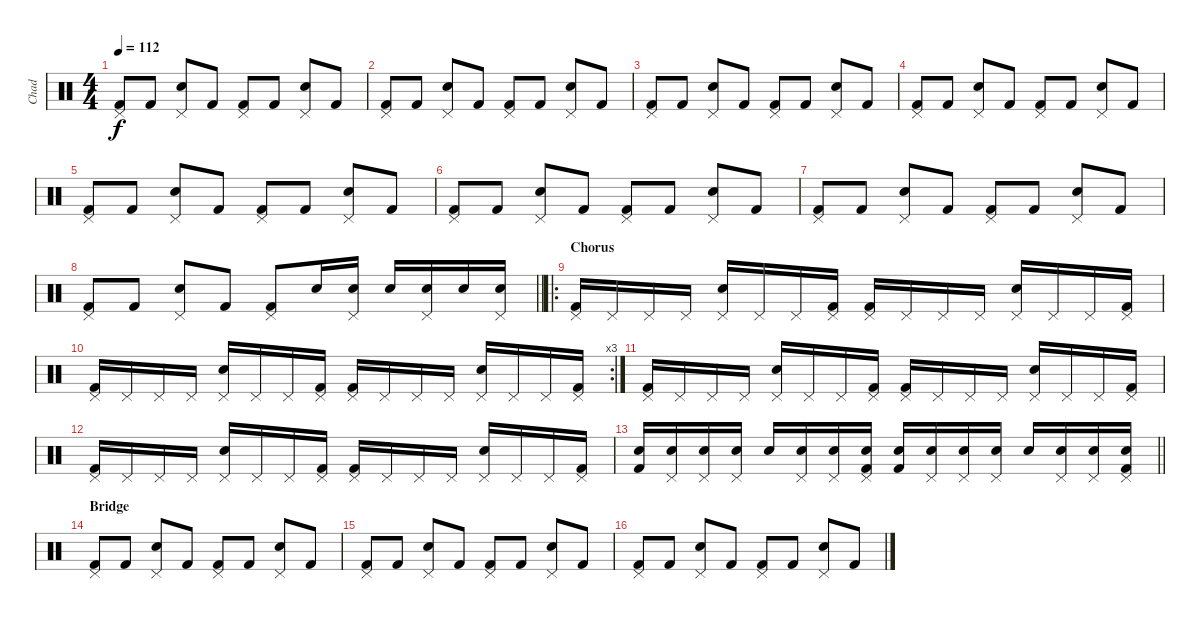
\track ("Chad" "Chad") {instrument percussion}
\staff {score}
\articulation defaults
\ts (4 4)
\tempo 112
\clef neutral
\ks c
("Kick (hit) 2" "Pedal Hi-Hat (hit)").8{dy f} "Kick (hit) 2".8 ("Snare (hit) 2" "Pedal Hi-Hat (hit)").8 "Kick (hit) 2".8 ("Kick (hit) 2" "Pedal Hi-Hat (hit)").8 "Kick (hit) 2".8 ("Snare (hit) 2" "Pedal Hi-Hat (hit)").8 "Kick (hit) 2".8 |
("Kick (hit) 2" "Pedal Hi-Hat (hit)").8 "Kick (hit) 2".8 ("Snare (hit) 2" "Pedal Hi-Hat (hit)").8 "Kick (hit) 2".8 ("Kick (hit) 2" "Pedal Hi-Hat (hit)").8 "Kick (hit) 2".8 ("Snare (hit) 2" "Pedal Hi-Hat (hit)").8 "Kick (hit) 2".8 |
("Kick (hit) 2" "Pedal Hi-Hat (hit)").8 "Kick (hit) 2".8 ("Snare (hit) 2" "Pedal Hi-Hat (hit)").8 "Kick (hit) 2".8 ("Kick (hit) 2" "Pedal Hi-Hat (hit)").8 "Kick (hit) 2".8 ("Snare (hit) 2" "Pedal Hi-Hat (hit)").8 "Kick (hit) 2".8 |
("Kick (hit) 2" "Pedal Hi-Hat (hit)").8 "Kick (hit) 2".8 ("Snare (hit) 2" "Pedal Hi-Hat (hit)").8 "Kick (hit) 2".8 ("Kick (hit) 2" "Pedal Hi-Hat (hit)").8 "Kick (hit) 2".8 ("Snare (hit) 2" "Pedal Hi-Hat (hit)").8 "Kick (hit) 2".8 |
("Kick (hit) 2" "Pedal Hi-Hat (hit)").8 "Kick (hit) 2".8 ("Snare (hit) 2" "Pedal Hi-Hat (hit)").8 "Kick (hit) 2".8 ("Kick (hit) 2" "Pedal Hi-Hat (hit)").8 "Kick (hit) 2".8 ("Snare (hit) 2" "Pedal Hi-Hat (hit)").8 "Kick (hit) 2".8 |
("Kick (hit) 2" "Pedal Hi-Hat (hit)").8 "Kick (hit) 2".8 ("Snare (hit) 2" "Pedal Hi-Hat (hit)").8 "Kick (hit) 2".8 ("Kick (hit) 2" "Pedal Hi-Hat (hit)").8 "Kick (hit) 2".8 ("Snare (hit) 2" "Pedal Hi-Hat (hit)").8 "Kick (hit) 2".8 |
("Kick (hit) 2" "Pedal Hi-Hat (hit)").8 "Kick (hit) 2".8 ("Snare (hit) 2" "Pedal Hi-Hat (hit)").8 "Kick (hit) 2".8 ("Kick (hit) 2" "Pedal Hi-Hat (hit)").8 "Kick (hit) 2".8 ("Snare (hit) 2" "Pedal Hi-Hat (hit)").8 "Kick (hit) 2".8 |
\barLineRight lightlight
("Kick (hit) 2" "Pedal Hi-Hat (hit)").8 "Kick (hit) 2".8 ("Snare (hit) 2" "Pedal Hi-Hat (hit)").8 "Kick (hit) 2".8 ("Kick (hit) 2" "Pedal Hi-Hat (hit)").8 "Snare (hit) 2".16 ("Snare (hit) 2" "Pedal Hi-Hat (hit)").16 "Snare (hit) 2".16 ("Snare (hit) 2" "Pedal Hi-Hat (hit)").16 "Snare (hit) 2".16 ("Snare (hit) 2" "Pedal Hi-Hat (hit)").16 |
\ro
\section ("" "Chorus")
("Kick (hit) 2" "Pedal Hi-Hat (hit)").16 "Pedal Hi-Hat (hit)".16 "Pedal Hi-Hat (hit)".16 "Pedal Hi-Hat (hit)".16 ("Snare (hit) 2" "Pedal Hi-Hat (hit)").16 "Pedal Hi-Hat (hit)".16 "Pedal Hi-Hat (hit)".16 ("Kick (hit) 2" "Pedal Hi-Hat (hit)").16 ("Kick (hit) 2" "Pedal Hi-Hat (hit)").16 "Pedal Hi-Hat (hit)".16 "Pedal Hi-Hat (hit)".16 "Pedal Hi-Hat (hit)".16 ("Snare (hit) 2" "Pedal Hi-Hat (hit)").16 "Pedal Hi-Hat (hit)".16 "Pedal Hi-Hat (hit)".16 ("Kick (hit) 2" "Pedal Hi-Hat (hit)").16 |
\rc 3
("Kick (hit) 2" "Pedal Hi-Hat (hit)").16 "Pedal Hi-Hat (hit)".16 "Pedal Hi-Hat (hit)".16 "Pedal Hi-Hat (hit)".16 ("Snare (hit) 2" "Pedal Hi-Hat (hit)").16 "Pedal Hi-Hat (hit)".16 "Pedal Hi-Hat (hit)".16 ("Kick (hit) 2" "Pedal Hi-Hat (hit)").16 ("Kick (hit) 2" "Pedal Hi-Hat (hit)").16 "Pedal Hi-Hat (hit)".16 "Pedal Hi-Hat (hit)".16 "Pedal Hi-Hat (hit)".16 ("Snare (hit) 2" "Pedal Hi-Hat (hit)").16 "Pedal Hi-Hat (hit)".16 "Pedal Hi-Hat (hit)".16 ("Kick (hit) 2" "Pedal Hi-Hat (hit)").16 |
("Kick (hit) 2" "Pedal Hi-Hat (hit)").16 "Pedal Hi-Hat (hit)".16 "Pedal Hi-Hat (hit)".16 "Pedal Hi-Hat (hit)".16 ("Snare (hit) 2" "Pedal Hi-Hat (hit)").16 "Pedal Hi-Hat (hit)".16 "Pedal Hi-Hat (hit)".16 ("Kick (hit) 2" "Pedal Hi-Hat (hit)").16 ("Kick (hit) 2" "Pedal Hi-Hat (hit)").16 "Pedal Hi-Hat (hit)".16 "Pedal Hi-Hat (hit)".16 "Pedal Hi-Hat (hit)".16 ("Snare (hit) 2" "Pedal Hi-Hat (hit)").16 "Pedal Hi-Hat (hit)".16 "Pedal Hi-Hat (hit)".16 ("Kick (hit) 2" "Pedal Hi-Hat (hit)").16 |
("Kick (hit) 2" "Pedal Hi-Hat (hit)").16 "Pedal Hi-Hat (hit)".16 "Pedal Hi-Hat (hit)".16 "Pedal Hi-Hat (hit)".16 ("Snare (hit) 2" "Pedal Hi-Hat (hit)").16 "Pedal Hi-Hat (hit)".16 "Pedal Hi-Hat (hit)".16 ("Kick (hit) 2" "Pedal Hi-Hat (hit)").16 ("Kick (hit) 2" "Pedal Hi-Hat (hit)").16 "Pedal Hi-Hat (hit)".16 "Pedal Hi-Hat (hit)".16 "Pedal Hi-Hat (hit)".16 ("Snare (hit) 2" "Pedal Hi-Hat (hit)").16 "Pedal Hi-Hat (hit)".16 "Pedal Hi-Hat (hit)".16 ("Kick (hit) 2" "Pedal Hi-Hat (hit)").16 |
\barLineRight lightlight
("Kick (hit) 2" "Snare (hit) 2").16 ("Snare (hit) 2" "Pedal Hi-Hat (hit)").16 ("Snare (hit) 2" "Pedal Hi-Hat (hit)").16 ("Snare (hit) 2" "Pedal Hi-Hat (hit)").16 "Snare (hit) 2".16 ("Snare (hit) 2" "Pedal Hi-Hat (hit)").16 ("Snare (hit) 2" "Pedal Hi-Hat (hit)").16 ("Kick (hit) 2" "Snare (hit) 2" "Pedal Hi-Hat (hit)").16 ("Kick (hit) 2" "Snare (hit) 2").16 ("Snare (hit) 2" "Pedal Hi-Hat (hit)").16 ("Snare (hit) 2" "Pedal Hi-Hat (hit)").16 ("Snare (hit) 2" "Pedal Hi-Hat (hit)").16 "Snare (hit) 2".16 ("Snare (hit) 2" "Pedal Hi-Hat (hit)").16 ("Snare (hit) 2" "Pedal Hi-Hat (hit)").16 ("Kick (hit) 2" "Snare (hit) 2" "Pedal Hi-Hat (hit)").16 |
\section ("" "Bridge")
("Kick (hit) 2" "Pedal Hi-Hat (hit)").8 "Kick (hit) 2".8 ("Snare (hit) 2" "Pedal Hi-Hat (hit)").8 "Kick (hit) 2".8 ("Kick (hit) 2" "Pedal Hi-Hat (hit)").8 "Kick (hit) 2".8 ("Snare (hit) 2" "Pedal Hi-Hat (hit)").8 "Kick (hit) 2".8 |
("Kick (hit) 2" "Pedal Hi-Hat (hit)").8 "Kick (hit) 2".8 ("Snare (hit) 2" "Pedal Hi-Hat (hit)").8 "Kick (hit) 2".8 ("Kick (hit) 2" "Pedal Hi-Hat (hit)").8 "Kick (hit) 2".8 ("Snare (hit) 2" "Pedal Hi-Hat (hit)").8 "Kick (hit) 2".8 |
("Kick (hit) 2" "Pedal Hi-Hat (hit)").8 "Kick (hit) 2".8 ("Snare (hit) 2" "Pedal Hi-Hat (hit)").8 "Kick (hit) 2".8 ("Kick (hit) 2" "Pedal Hi-Hat (hit)").8 "Kick (hit) 2".8 ("Snare (hit) 2" "Pedal Hi-Hat (hit)").8 "Kick (hit) 2".8
